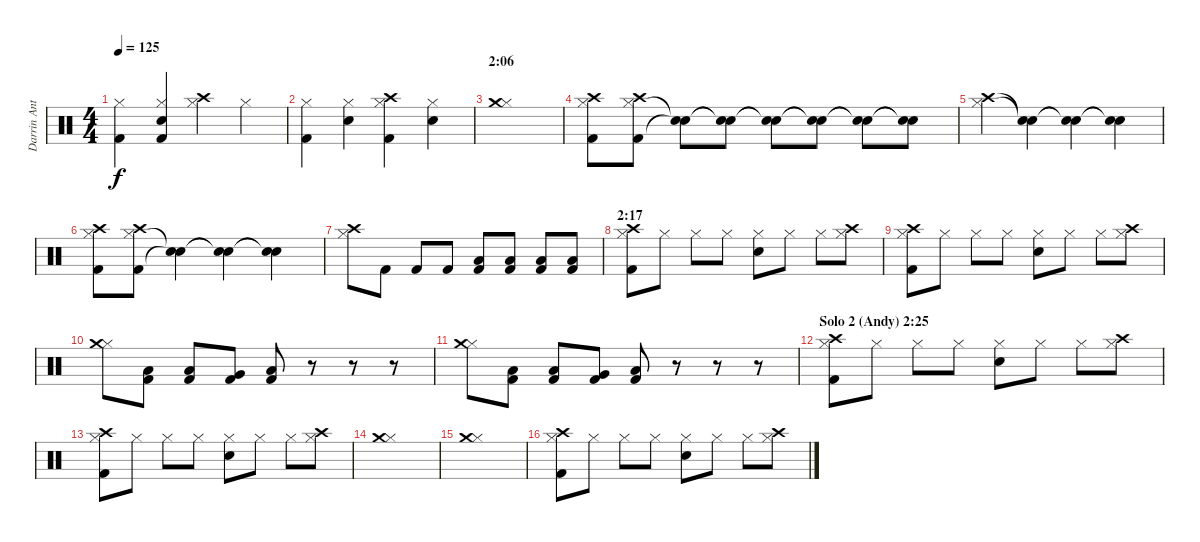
\track ("Darrin Anthony (Drums)" "Darrin Ant") {instrument percussion}
\staff {score}
\articulation defaults
\ts (4 4)
\tempo 125
\clef neutral
\ks c
("Kick (hit) 2" "Hi-Hat (closed)").4{dy f} ("Kick (hit) 2" "Electric Snare (hit)" "Hi-Hat (closed)").4 ("Hi-Hat (closed)" "Crash high (hit)").4 "Hi-Hat (closed)".4 |
("Kick (hit) 2" "Hi-Hat (closed)").4 ("Electric Snare (hit)" "Hi-Hat (closed)").4 ("Kick (hit) 2" "Hi-Hat (closed)" "Crash high (hit)").4 ("Electric Snare (hit)" "Hi-Hat (closed)").4 |
\section ("" "2:06")
("Hi-Hat (closed)" "Crash medium (hit)").1 |
("Kick (hit) 2" "Hi-Hat (closed)" "Crash high (hit)").8 ("Kick (hit) 2" "Hi-Hat (closed)" "Crash high (hit)").8 ("Snare (hit)"{t} "Snare (hit)"{t}).8 ("Snare (hit)"{t} "Snare (hit)"{t}).8 ("Snare (hit)"{t} "Snare (hit)"{t}).8 ("Snare (hit)"{t} "Snare (hit)"{t}).8 ("Snare (hit)"{t} "Snare (hit)"{t}).8 ("Snare (hit)"{t} "Snare (hit)"{t}).8 |
("Hi-Hat (closed)" "Crash high (hit)").4 ("Snare (hit)"{t} "Snare (hit)"{t}).4 ("Snare (hit)"{t} "Snare (hit)"{t}).4 ("Snare (hit)"{t} "Snare (hit)"{t}).4 |
("Kick (hit) 2" "Hi-Hat (closed)" "Crash high (hit)").8 ("Kick (hit) 2" "Hi-Hat (closed)" "Crash high (hit)").8 ("Snare (hit)"{t} "Snare (hit)"{t}).4 ("Snare (hit)"{t} "Snare (hit)"{t}).4 ("Snare (hit)"{t} "Snare (hit)"{t}).4 |
("Hi-Hat (closed)" "Crash high (hit)").8 "Kick (hit) 2".8 "Kick (hit) 2".8 "Kick (hit) 2".8 ("Kick (hit) 2" "Low Tom (hit)").8 ("Kick (hit) 2" "Low Tom (hit)").8 ("Kick (hit) 2" "Low Tom (hit)").8 ("Kick (hit) 2" "Low Tom (hit)").8 |
\section ("" "2:17")
("Kick (hit) 2" "Hi-Hat (closed)" "Crash high (hit)").8 "Hi-Hat (closed)".8 "Hi-Hat (closed)".8 "Hi-Hat (closed)".8 ("Electric Snare (hit)" "Hi-Hat (closed)").8 "Hi-Hat (closed)".8 "Hi-Hat (closed)".8 ("Hi-Hat (closed)" "Crash high (hit)").8 |
("Kick (hit) 2" "Hi-Hat (closed)" "Crash high (hit)").8 "Hi-Hat (closed)".8 "Hi-Hat (closed)".8 "Hi-Hat (closed)".8 ("Electric Snare (hit)" "Hi-Hat (closed)").8 "Hi-Hat (closed)".8 "Hi-Hat (closed)".8 ("Hi-Hat (closed)" "Crash high (hit)").8 |
("Hi-Hat (closed)" "Crash medium (hit)").8 ("Kick (hit) 2" "Low Tom (hit)").8 ("Kick (hit) 2" "Low Tom (hit)").8 ("Kick (hit) 2" "Very Low Tom (hit)").8 ("Kick (hit) 2" "Low Floor Tom (hit)").8 r.8 r.8 r.8 |
("Hi-Hat (closed)" "Crash medium (hit)").8 ("Kick (hit) 2" "Low Tom (hit)").8 ("Kick (hit) 2" "Low Tom (hit)").8 ("Kick (hit) 2" "Very Low Tom (hit)").8 ("Kick (hit) 2" "Low Floor Tom (hit)").8 r.8 r.8 r.8 |
\section ("" "Solo 2 (Andy) 2:25")
("Kick (hit) 2" "Hi-Hat (closed)" "Crash high (hit)").8 "Hi-Hat (closed)".8 "Hi-Hat (closed)".8 "Hi-Hat (closed)".8 ("Electric Snare (hit)" "Hi-Hat (closed)").8 "Hi-Hat (closed)".8 "Hi-Hat (closed)".8 ("Hi-Hat (closed)" "Crash high (hit)").8 |
("Kick (hit) 2" "Hi-Hat (closed)" "Crash high (hit)").8 "Hi-Hat (closed)".8 "Hi-Hat (closed)".8 "Hi-Hat (closed)".8 ("Electric Snare (hit)" "Hi-Hat (closed)").8 "Hi-Hat (closed)".8 "Hi-Hat (closed)".8 ("Hi-Hat (closed)" "Crash high (hit)").8 |
("Hi-Hat (closed)" "Crash medium (hit)").1 |
("Hi-Hat (closed)" "Crash medium (hit)").1 |
("Kick (hit) 2" "Hi-Hat (closed)" "Crash high (hit)").8 "Hi-Hat (closed)".8 "Hi-Hat (closed)".8 "Hi-Hat (closed)".8 ("Electric Snare (hit)" "Hi-Hat (closed)").8 "Hi-Hat (closed)".8 "Hi-Hat (closed)".8 ("Hi-Hat (closed)" "Crash high (hit)").8
